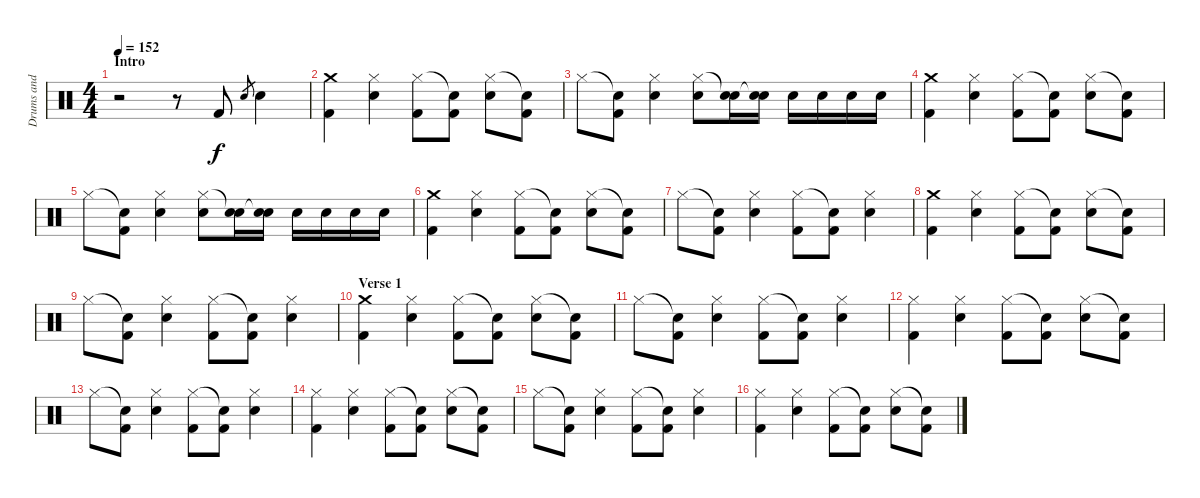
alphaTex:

\track ("Drums and Percussion" "Drums and ") {instrument percussion}
\staff {score}
\articulation defaults
\ts (4 4)
\section ("" "Intro")
\tempo 152
\clef neutral
\ks c
r.2{dy f} r.8 "Kick (hit) 2".8 "Snare (hit) 2".8{gr} "Snare (hit) 2".4 |
("Crash medium (hit)" "Kick (hit) 2").4 ("Hi-Hat (closed)" "Snare (hit) 2").4 ("Hi-Hat (closed)" "Kick (hit) 2").8 ("Snare (hit)"{t} "Kick (hit) 2").8 ("Hi-Hat (closed)" "Snare (hit) 2").8 ("Snare (hit)"{t} "Kick (hit) 2").8 |
"Hi-Hat (closed)".8 ("Snare (hit)"{t} "Kick (hit) 2").8 ("Hi-Hat (closed)" "Snare (hit) 2").4 ("Hi-Hat (closed)" "Snare (hit) 2").8 ("Snare (hit)"{t} "Snare (hit) 2").16 ("Snare (hit)"{t} "Snare (hit) 2").16 "Snare (hit) 2".16 "Snare (hit) 2".16 "Snare (hit) 2".16 "Snare (hit) 2".16 |
("Crash medium (hit)" "Kick (hit) 2").4 ("Hi-Hat (closed)" "Snare (hit) 2").4 ("Hi-Hat (closed)" "Kick (hit) 2").8 ("Snare (hit)"{t} "Kick (hit) 2").8 ("Hi-Hat (closed)" "Snare (hit) 2").8 ("Snare (hit)"{t} "Kick (hit) 2").8 |
"Hi-Hat (closed)".8 ("Snare (hit)"{t} "Kick (hit) 2").8 ("Hi-Hat (closed)" "Snare (hit) 2").4 ("Hi-Hat (closed)" "Snare (hit) 2").8 ("Snare (hit)"{t} "Snare (hit) 2").16 ("Snare (hit)"{t} "Snare (hit) 2").16 "Snare (hit) 2".16 "Snare (hit) 2".16 "Snare (hit) 2".16 "Snare (hit) 2".16 |
("Crash medium (hit)" "Kick (hit) 2").4 ("Hi-Hat (closed)" "Snare (hit) 2").4 ("Hi-Hat (closed)" "Kick (hit) 2").8 ("Snare (hit)"{t} "Kick (hit) 2").8 ("Hi-Hat (closed)" "Snare (hit) 2").8 ("Snare (hit)"{t} "Kick (hit) 2").8 |
"Hi-Hat (closed)".8 ("Snare (hit)"{t} "Kick (hit) 2").8 ("Hi-Hat (closed)" "Snare (hit) 2").4 ("Hi-Hat (closed)" "Kick (hit) 2").8 ("Snare (hit)"{t} "Kick (hit) 2").8 ("Hi-Hat (closed)" "Snare (hit) 2").4 |
("Crash medium (hit)" "Kick (hit) 2").4 ("Hi-Hat (closed)" "Snare (hit) 2").4 ("Hi-Hat (closed)" "Kick (hit) 2").8 ("Snare (hit)"{t} "Kick (hit) 2").8 ("Hi-Hat (closed)" "Snare (hit) 2").8 ("Snare (hit)"{t} "Kick (hit) 2").8 |
"Hi-Hat (closed)".8 ("Snare (hit)"{t} "Kick (hit) 2").8 ("Hi-Hat (closed)" "Snare (hit) 2").4 ("Hi-Hat (closed)" "Kick (hit) 2").8 ("Snare (hit)"{t} "Kick (hit) 2").8 ("Hi-Hat (closed)" "Snare (hit) 2").4 |
\section ("" "Verse 1")
("Crash medium (hit)" "Kick (hit) 2").4 ("Hi-Hat (closed)" "Snare (hit) 2").4 ("Hi-Hat (closed)" "Kick (hit) 2").8 ("Snare (hit)"{t} "Kick (hit) 2").8 ("Hi-Hat (closed)" "Snare (hit) 2").8 ("Snare (hit)"{t} "Kick (hit) 2").8 |
"Hi-Hat (closed)".8 ("Snare (hit)"{t} "Kick (hit) 2").8 ("Hi-Hat (closed)" "Snare (hit) 2").4 ("Hi-Hat (closed)" "Kick (hit) 2").8 ("Snare (hit)"{t} "Kick (hit) 2").8 ("Hi-Hat (closed)" "Snare (hit) 2").4 |
("Hi-Hat (closed)" "Kick (hit) 2").4 ("Hi-Hat (closed)" "Snare (hit) 2").4 ("Hi-Hat (closed)" "Kick (hit) 2").8 ("Snare (hit)"{t} "Kick (hit) 2").8 ("Hi-Hat (closed)" "Snare (hit) 2").8 ("Snare (hit)"{t} "Kick (hit) 2").8 |
"Hi-Hat (closed)".8 ("Snare (hit)"{t} "Kick (hit) 2").8 ("Hi-Hat (closed)" "Snare (hit) 2").4 ("Hi-Hat (closed)" "Kick (hit) 2").8 ("Snare (hit)"{t} "Kick (hit) 2").8 ("Hi-Hat (closed)" "Snare (hit) 2").4 |
("Hi-Hat (closed)" "Kick (hit) 2").4 ("Hi-Hat (closed)" "Snare (hit) 2").4 ("Hi-Hat (closed)" "Kick (hit) 2").8 ("Snare (hit)"{t} "Kick (hit) 2").8 ("Hi-Hat (closed)" "Snare (hit) 2").8 ("Snare (hit)"{t} "Kick (hit) 2").8 |
"Hi-Hat (closed)".8 ("Snare (hit)"{t} "Kick (hit) 2").8 ("Hi-Hat (closed)" "Snare (hit) 2").4 ("Hi-Hat (closed)" "Kick (hit) 2").8 ("Snare (hit)"{t} "Kick (hit) 2").8 ("Hi-Hat (closed)" "Snare (hit) 2").4 |
("Hi-Hat (closed)" "Kick (hit) 2").4 ("Hi-Hat (closed)" "Snare (hit) 2").4 ("Hi-Hat (closed)" "Kick (hit) 2").8 ("Snare (hit)"{t} "Kick (hit) 2").8 ("Hi-Hat (closed)" "Snare (hit) 2").8 ("Snare (hit)"{t} "Kick (hit) 2").8
